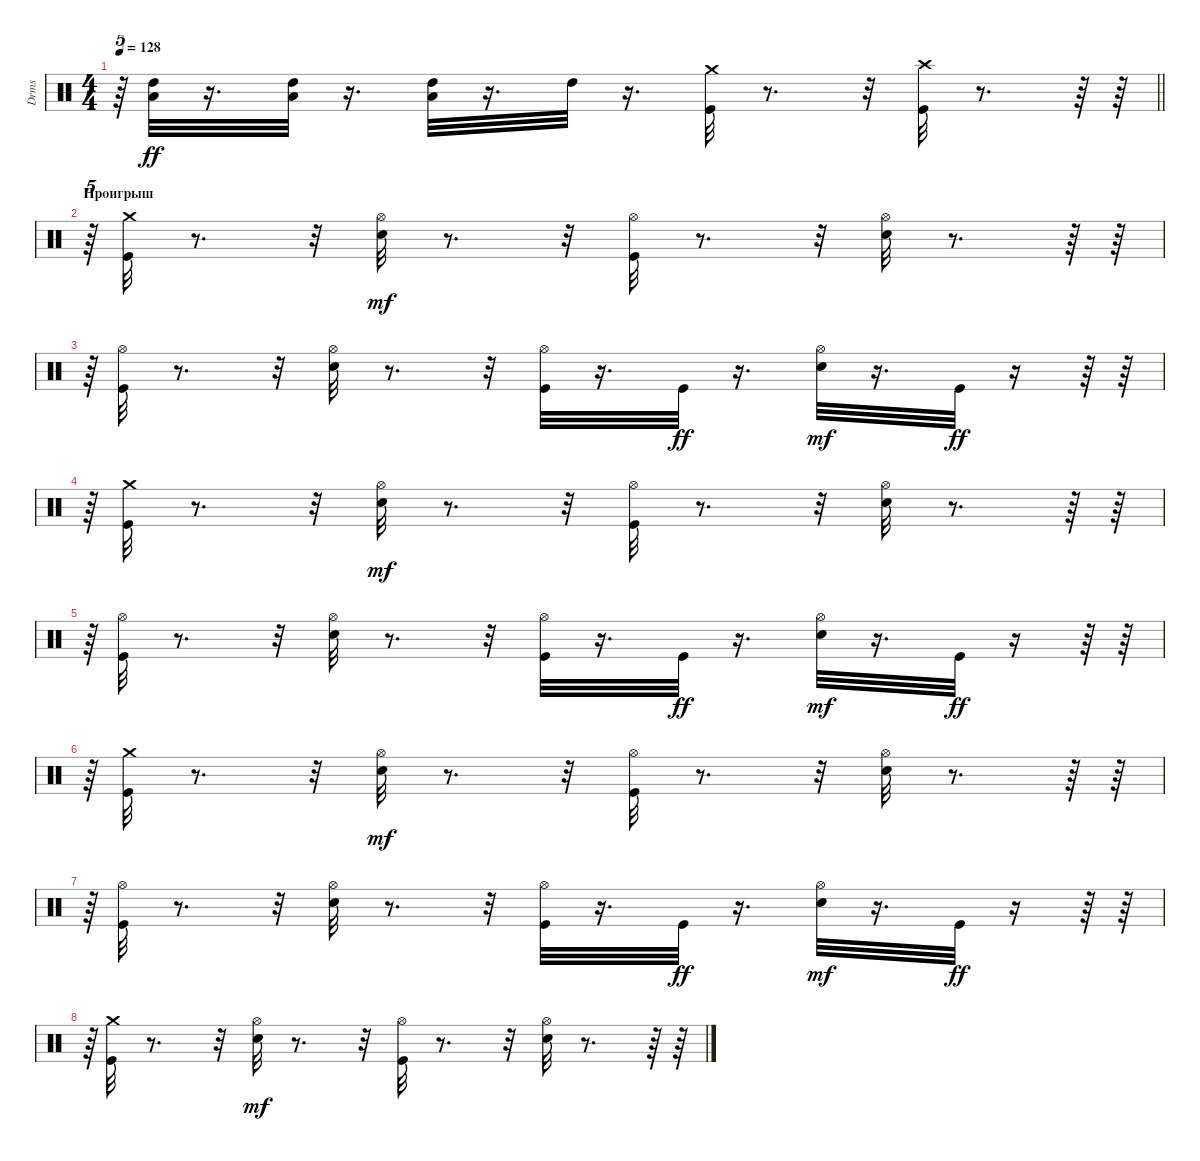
\track ("Drms" "Drms") {instrument percussion}
\staff {score}
\articulation defaults
\ts (4 4)
\tempo 128
\clef neutral
\barLineRight lightlight
\ks c
r.64{tu (5 4) dy mf} ("Low Tom (hit)" "High Tom (hit)").32{dy ff} r.16{d} ("Low Tom (hit)" "High Tom (hit)").32 r.16{d} ("Low Tom (hit)" "High Tom (hit)").32 r.16{d} "High Tom (hit)".32 r.16{d} ("Crash medium (hit)" "Kick (hit)").32 r.8{d} r.32 ("Crash high (hit)" "Kick (hit)").32 r.8{d} r.64 r.64 |
\section ("" "Проигрыш")
r.64{tu (5 4)} ("Kick (hit)" "Crash medium (hit)").32 r.8{d} r.32 ("Snare (hit) 2" "Hi-Hat (open)").32{dy mf} r.8{d} r.32 ("Kick (hit)" "Hi-Hat (open)").32 r.8{d} r.32 ("Snare (hit) 2" "Hi-Hat (open)").32 r.8{d} r.64 r.64 |
r.64{tu (5 4)} ("Kick (hit)" "Hi-Hat (open)").32 r.8{d} r.32 ("Snare (hit) 2" "Hi-Hat (open)").32 r.8{d} r.32 ("Kick (hit)" "Hi-Hat (open)").32 r.16{d} "Kick (hit)".32{dy ff} r.16{d} ("Snare (hit) 2" "Hi-Hat (open)").32{dy mf} r.16{d} "Kick (hit)".32{dy ff} r.16 r.64 r.64 |
r.64{tu (5 4)} ("Kick (hit)" "Crash medium (hit)").32 r.8{d} r.32 ("Snare (hit) 2" "Hi-Hat (open)").32{dy mf} r.8{d} r.32 ("Kick (hit)" "Hi-Hat (open)").32 r.8{d} r.32 ("Snare (hit) 2" "Hi-Hat (open)").32 r.8{d} r.64 r.64 |
r.64{tu (5 4)} ("Kick (hit)" "Hi-Hat (open)").32 r.8{d} r.32 ("Snare (hit) 2" "Hi-Hat (open)").32 r.8{d} r.32 ("Kick (hit)" "Hi-Hat (open)").32 r.16{d} "Kick (hit)".32{dy ff} r.16{d} ("Snare (hit) 2" "Hi-Hat (open)").32{dy mf} r.16{d} "Kick (hit)".32{dy ff} r.16 r.64 r.64 |
r.64{tu (5 4)} ("Kick (hit)" "Crash medium (hit)").32 r.8{d} r.32 ("Snare (hit) 2" "Hi-Hat (open)").32{dy mf} r.8{d} r.32 ("Kick (hit)" "Hi-Hat (open)").32 r.8{d} r.32 ("Snare (hit) 2" "Hi-Hat (open)").32 r.8{d} r.64 r.64 |
r.64{tu (5 4)} ("Kick (hit)" "Hi-Hat (open)").32 r.8{d} r.32 ("Snare (hit) 2" "Hi-Hat (open)").32 r.8{d} r.32 ("Kick (hit)" "Hi-Hat (open)").32 r.16{d} "Kick (hit)".32{dy ff} r.16{d} ("Snare (hit) 2" "Hi-Hat (open)").32{dy mf} r.16{d} "Kick (hit)".32{dy ff} r.16 r.64 r.64 |
r.64{tu (5 4)} ("Kick (hit)" "Crash medium (hit)").32 r.8{d} r.32 ("Snare (hit) 2" "Hi-Hat (open)").32{dy mf} r.8{d} r.32 ("Kick (hit)" "Hi-Hat (open)").32 r.8{d} r.32 ("Snare (hit) 2" "Hi-Hat (open)").32 r.8{d} r.64 r.64
